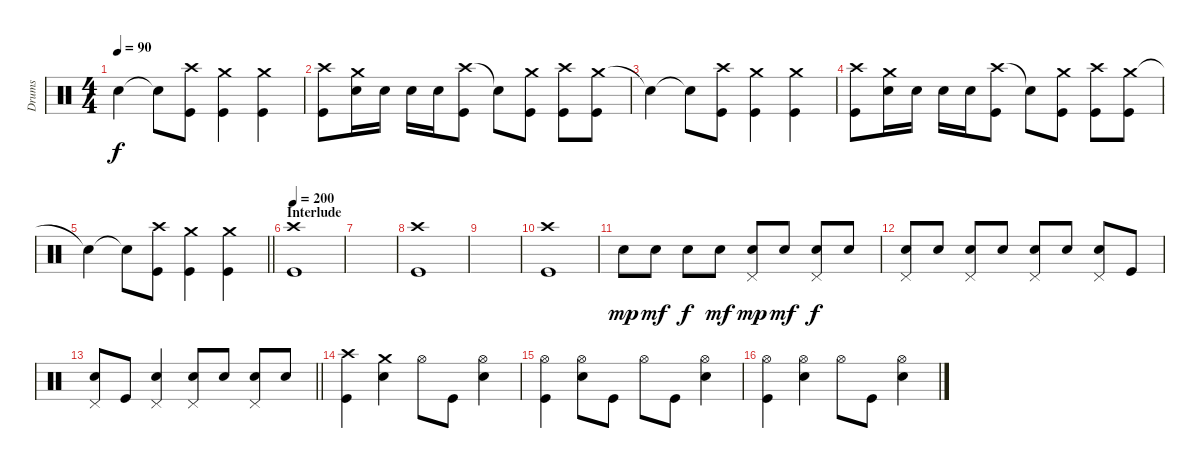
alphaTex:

\track ("Drums" "Drums") {instrument percussion}
\staff {score}
\articulation defaults
\ts (4 4)
\tempo 90
\clef neutral
\ks c "Snare (hit)"{t}.4{dy f} "Snare (hit)"{t}.8
("Crash high (hit)" "Kick (hit)").8 ("Crash medium (hit)" "Kick (hit)").4 ("Crash medium (hit)" "Kick (hit)").4 |
("Crash high (hit)" "Kick (hit)").8 ("Crash medium (hit)" "Electric Snare (hit)").16 "Electric Snare (hit)".16 "Electric Snare (hit)".16 "Electric Snare (hit)".16 ("Crash high (hit)" "Kick (hit)").8 "Snare (hit)"{t}.8 ("Crash medium (hit)" "Kick (hit)").8 ("Crash high (hit)" "Kick (hit)").8 ("Crash medium (hit)" "Kick (hit)").8 |
"Snare (hit)"{t}.4 "Snare (hit)"{t}.8 ("Crash high (hit)" "Kick (hit)").8 ("Crash medium (hit)" "Kick (hit)").4 ("Crash medium (hit)" "Kick (hit)").4 |
("Crash high (hit)" "Kick (hit)").8 ("Crash medium (hit)" "Electric Snare (hit)").16 "Electric Snare (hit)".16 "Electric Snare (hit)".16 "Electric Snare (hit)".16 ("Crash high (hit)" "Kick (hit)").8 "Snare (hit)"{t}.8 ("Crash medium (hit)" "Kick (hit)").8 ("Crash high (hit)" "Kick (hit)").8 ("Crash medium (hit)" "Kick (hit)").8 |
\barLineRight lightlight "Snare (hit)"{t}.4 "Snare (hit)"{t}.8
("Crash high (hit)" "Kick (hit)").8 ("Crash medium (hit)" "Kick (hit)").4 ("Crash medium (hit)" "Kick (hit)").4 |
\section ("" "Interlude")
\tempo 200
("Crash high (hit)" "Kick (hit)").1 |
|
("Crash high (hit)" "Kick (hit)").1 |
|
("Crash high (hit)" "Kick (hit)").1 |
"Snare (hit) 2".8{dy mp} "Snare (hit) 2".8{dy mf} "Snare (hit) 2".8{dy f} "Snare (hit) 2".8{dy mf} ("Snare (hit) 2" "Pedal Hi-Hat (hit)").8{dy mp} "Snare (hit) 2".8{dy mf} ("Snare (hit) 2" "Pedal Hi-Hat (hit)").8{dy f} "Snare (hit) 2".8 |
("Snare (hit) 2" "Pedal Hi-Hat (hit)").8 "Electric Snare (hit)".8 ("Electric Snare (hit)" "Pedal Hi-Hat (hit)").8 "Electric Snare (hit)".8 ("Electric Snare (hit)" "Pedal Hi-Hat (hit)").8 "Electric Snare (hit)".8 ("Electric Snare (hit)" "Pedal Hi-Hat (hit)").8 "Kick (hit)".8 |
\barLineRight lightlight
("Electric Snare (hit)" "Pedal Hi-Hat (hit)").8 "Kick (hit)".8 ("Electric Snare (hit)" "Pedal Hi-Hat (hit)").4 ("Electric Snare (hit)" "Pedal Hi-Hat (hit)").8 "Electric Snare (hit)".8 ("Electric Snare (hit)" "Pedal Hi-Hat (hit)").8 "Electric Snare (hit)".8 |
("Crash high (hit)" "Kick (hit)").4 ("Crash medium (hit)" "Electric Snare (hit)").4 "Hi-Hat (open)".8 "Kick (hit)".8 ("Hi-Hat (open)" "Electric Snare (hit)").4 |
("Hi-Hat (open)" "Kick (hit)").4 ("Hi-Hat (open)" "Electric Snare (hit)").8 "Kick (hit)".8 "Hi-Hat (open)".8 "Kick (hit)".8 ("Hi-Hat (open)" "Electric Snare (hit)").4 |
("Hi-Hat (open)" "Kick (hit)").4 ("Hi-Hat (open)" "Electric Snare (hit)").4 "Hi-Hat (open)".8 "Kick (hit)".8 ("Hi-Hat (open)" "Electric Snare (hit)").4
